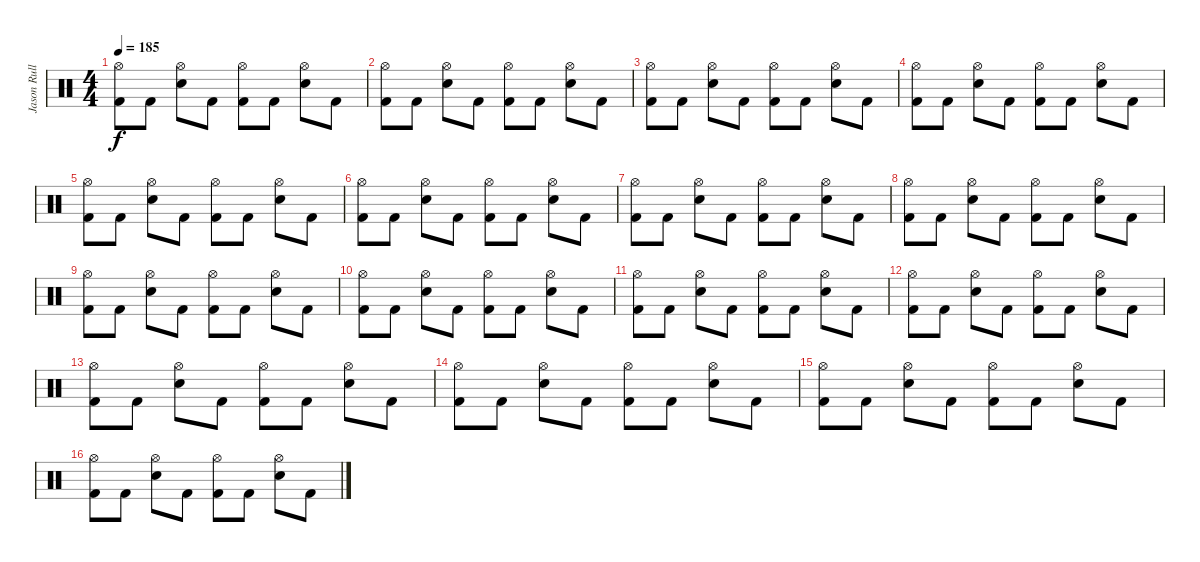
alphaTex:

\track ("Jason Rullo" "Jason Rull") {instrument percussion}
\staff {score}
\articulation defaults
\ts (4 4)
\tempo 185
\clef neutral
\ks c
("Hi-Hat (open)" "Kick (hit) 2").8{dy f} "Kick (hit) 2".8 ("Hi-Hat (open)" "Snare (hit) 2").8 "Kick (hit) 2".8 ("Hi-Hat (open)" "Kick (hit) 2").8 "Kick (hit) 2".8 ("Hi-Hat (open)" "Snare (hit) 2").8 "Kick (hit) 2".8 |
("Hi-Hat (open)" "Kick (hit) 2").8 "Kick (hit) 2".8 ("Hi-Hat (open)" "Snare (hit) 2").8 "Kick (hit) 2".8 ("Hi-Hat (open)" "Kick (hit) 2").8 "Kick (hit) 2".8 ("Hi-Hat (open)" "Snare (hit) 2").8 "Kick (hit) 2".8 |
("Hi-Hat (open)" "Kick (hit) 2").8 "Kick (hit) 2".8 ("Hi-Hat (open)" "Snare (hit) 2").8 "Kick (hit) 2".8 ("Hi-Hat (open)" "Kick (hit) 2").8 "Kick (hit) 2".8 ("Hi-Hat (open)" "Snare (hit) 2").8 "Kick (hit) 2".8 |
("Hi-Hat (open)" "Kick (hit) 2").8 "Kick (hit) 2".8 ("Hi-Hat (open)" "Snare (hit) 2").8 "Kick (hit) 2".8 ("Hi-Hat (open)" "Kick (hit) 2").8 "Kick (hit) 2".8 ("Hi-Hat (open)" "Snare (hit) 2").8 "Kick (hit) 2".8 |
("Hi-Hat (open)" "Kick (hit) 2").8 "Kick (hit) 2".8 ("Hi-Hat (open)" "Snare (hit) 2").8 "Kick (hit) 2".8 ("Hi-Hat (open)" "Kick (hit) 2").8 "Kick (hit) 2".8 ("Hi-Hat (open)" "Snare (hit) 2").8 "Kick (hit) 2".8 |
("Hi-Hat (open)" "Kick (hit) 2").8 "Kick (hit) 2".8 ("Hi-Hat (open)" "Snare (hit) 2").8 "Kick (hit) 2".8 ("Hi-Hat (open)" "Kick (hit) 2").8 "Kick (hit) 2".8 ("Hi-Hat (open)" "Snare (hit) 2").8 "Kick (hit) 2".8 |
("Hi-Hat (open)" "Kick (hit) 2").8 "Kick (hit) 2".8 ("Hi-Hat (open)" "Snare (hit) 2").8 "Kick (hit) 2".8 ("Hi-Hat (open)" "Kick (hit) 2").8 "Kick (hit) 2".8 ("Hi-Hat (open)" "Snare (hit) 2").8 "Kick (hit) 2".8 |
("Hi-Hat (open)" "Kick (hit) 2").8 "Kick (hit) 2".8 ("Hi-Hat (open)" "Snare (hit) 2").8 "Kick (hit) 2".8 ("Hi-Hat (open)" "Kick (hit) 2").8 "Kick (hit) 2".8 ("Hi-Hat (open)" "Snare (hit) 2").8 "Kick (hit) 2".8 |
("Hi-Hat (open)" "Kick (hit) 2").8 "Kick (hit) 2".8 ("Hi-Hat (open)" "Snare (hit) 2").8 "Kick (hit) 2".8 ("Hi-Hat (open)" "Kick (hit) 2").8 "Kick (hit) 2".8 ("Hi-Hat (open)" "Snare (hit) 2").8 "Kick (hit) 2".8 |
("Hi-Hat (open)" "Kick (hit) 2").8 "Kick (hit) 2".8 ("Hi-Hat (open)" "Snare (hit) 2").8 "Kick (hit) 2".8 ("Hi-Hat (open)" "Kick (hit) 2").8 "Kick (hit) 2".8 ("Hi-Hat (open)" "Snare (hit) 2").8 "Kick (hit) 2".8 |
("Hi-Hat (open)" "Kick (hit) 2").8 "Kick (hit) 2".8 ("Hi-Hat (open)" "Snare (hit) 2").8 "Kick (hit) 2".8 ("Hi-Hat (open)" "Kick (hit) 2").8 "Kick (hit) 2".8 ("Hi-Hat (open)" "Snare (hit) 2").8 "Kick (hit) 2".8 |
("Hi-Hat (open)" "Kick (hit) 2").8 "Kick (hit) 2".8 ("Hi-Hat (open)" "Snare (hit) 2").8 "Kick (hit) 2".8 ("Hi-Hat (open)" "Kick (hit) 2").8 "Kick (hit) 2".8 ("Hi-Hat (open)" "Snare (hit) 2").8 "Kick (hit) 2".8 |
("Hi-Hat (open)" "Kick (hit) 2").8 "Kick (hit) 2".8 ("Hi-Hat (open)" "Snare (hit) 2").8 "Kick (hit) 2".8 ("Hi-Hat (open)" "Kick (hit) 2").8 "Kick (hit) 2".8 ("Hi-Hat (open)" "Snare (hit) 2").8 "Kick (hit) 2".8 |
("Hi-Hat (open)" "Kick (hit) 2").8 "Kick (hit) 2".8 ("Hi-Hat (open)" "Snare (hit) 2").8 "Kick (hit) 2".8 ("Hi-Hat (open)" "Kick (hit) 2").8 "Kick (hit) 2".8 ("Hi-Hat (open)" "Snare (hit) 2").8 "Kick (hit) 2".8 |
("Hi-Hat (open)" "Kick (hit) 2").8 "Kick (hit) 2".8 ("Hi-Hat (open)" "Snare (hit) 2").8 "Kick (hit) 2".8 ("Hi-Hat (open)" "Kick (hit) 2").8 "Kick (hit) 2".8 ("Hi-Hat (open)" "Snare (hit) 2").8 "Kick (hit) 2".8 |
("Hi-Hat (open)" "Kick (hit) 2").8 "Kick (hit) 2".8 ("Hi-Hat (open)" "Snare (hit) 2").8 "Kick (hit) 2".8 ("Hi-Hat (open)" "Kick (hit) 2").8 "Kick (hit) 2".8 ("Hi-Hat (open)" "Snare (hit) 2").8 "Kick (hit) 2".8
